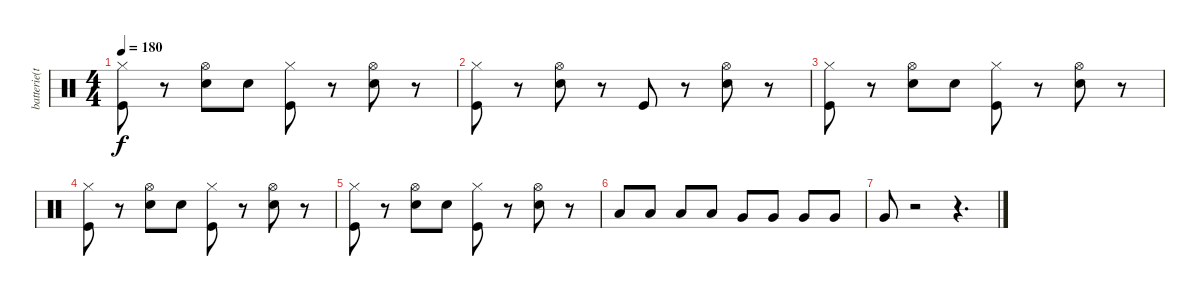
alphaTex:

\track ("batterie(topper)" "batterie(t") {instrument percussion}
\staff {score}
\articulation defaults
\ts (4 4)
\tempo 180
\clef neutral
\ks c
("Hi-Hat (closed)" "Kick (hit)").8{dy f} r.8 ("Hi-Hat (open)" "Snare (hit) 2").8 "Snare (hit) 2".8 ("Hi-Hat (closed)" "Kick (hit)").8 r.8 ("Hi-Hat (open)" "Snare (hit) 2").8 r.8 |
("Hi-Hat (closed)" "Kick (hit)").8 r.8 ("Hi-Hat (open)" "Snare (hit) 2").8 r.8 "Kick (hit)".8 r.8 ("Hi-Hat (open)" "Snare (hit) 2").8 r.8 |
("Hi-Hat (closed)" "Kick (hit)").8 r.8 ("Hi-Hat (open)" "Snare (hit) 2").8 "Snare (hit) 2".8 ("Hi-Hat (closed)" "Kick (hit)").8 r.8 ("Hi-Hat (open)" "Snare (hit) 2").8 r.8 |
("Hi-Hat (closed)" "Kick (hit)").8 r.8 ("Hi-Hat (open)" "Snare (hit) 2").8 "Snare (hit) 2".8 ("Hi-Hat (closed)" "Kick (hit)").8 r.8 ("Hi-Hat (open)" "Snare (hit) 2").8 r.8 |
("Hi-Hat (closed)" "Kick (hit)").8 r.8 ("Hi-Hat (open)" "Snare (hit) 2").8 "Snare (hit) 2".8 ("Hi-Hat (closed)" "Kick (hit)").8 r.8 ("Hi-Hat (open)" "Snare (hit) 2").8 r.8 |
"Low Tom (hit)".8 "Low Tom (hit)".8 "Low Tom (hit)".8 "Low Tom (hit)".8 "Very Low Tom (hit)".8 "Very Low Tom (hit)".8 "Very Low Tom (hit)".8 "Very Low Tom (hit)".8 |
"Very Low Tom (hit)".8 r.2 r.4{d}
